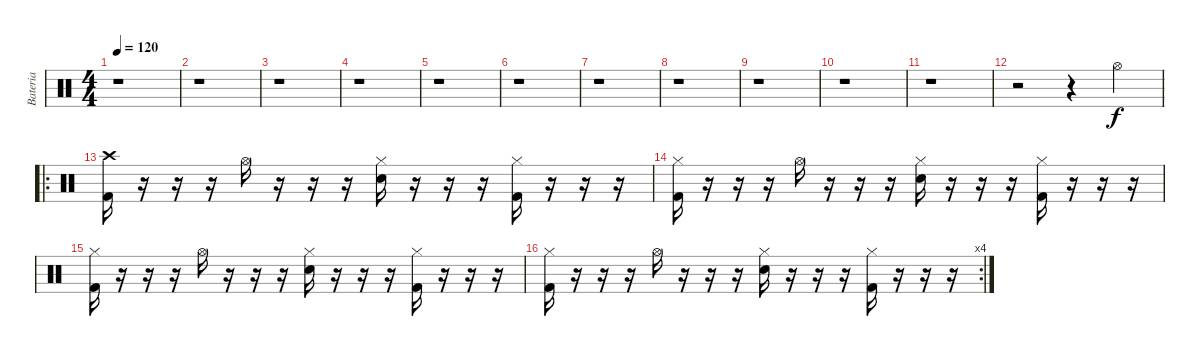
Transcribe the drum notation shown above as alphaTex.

\track ("Bateria" "Bateria") {instrument percussion}
\staff {score}
\articulation defaults
\ts (4 4)
\tempo 120
\clef neutral
\ks c
r.1{dy f} |
r.1 |
r.1 |
r.1 |
r.1 |
r.1 |
r.1 |
r.1 |
r.1 |
r.1 |
r.1 |
r.2 r.4 "Hi-Hat (open)".4 |
\ro
("Crash high (hit)" "Kick (hit) 2").16 r.16 r.16 r.16 "Hi-Hat (open)".16 r.16 r.16 r.16 ("Hi-Hat (closed)" "Electric Snare (hit)").16 r.16 r.16 r.16 ("Hi-Hat (closed)" "Kick (hit) 2").16 r.16 r.16 r.16 |
("Hi-Hat (closed)" "Kick (hit) 2").16 r.16 r.16 r.16 "Hi-Hat (open)".16 r.16 r.16 r.16 ("Hi-Hat (closed)" "Electric Snare (hit)").16 r.16 r.16 r.16 ("Hi-Hat (closed)" "Kick (hit) 2").16 r.16 r.16 r.16 |
("Hi-Hat (closed)" "Kick (hit) 2").16 r.16 r.16 r.16 "Hi-Hat (open)".16 r.16 r.16 r.16 ("Hi-Hat (closed)" "Electric Snare (hit)").16 r.16 r.16 r.16 ("Hi-Hat (closed)" "Kick (hit) 2").16 r.16 r.16 r.16 |
\rc 4
("Hi-Hat (closed)" "Kick (hit) 2").16 r.16 r.16 r.16 "Hi-Hat (open)".16 r.16 r.16 r.16 ("Hi-Hat (closed)" "Electric Snare (hit)").16 r.16 r.16 r.16 ("Hi-Hat (closed)" "Kick (hit) 2").16 r.16 r.16 r.16
